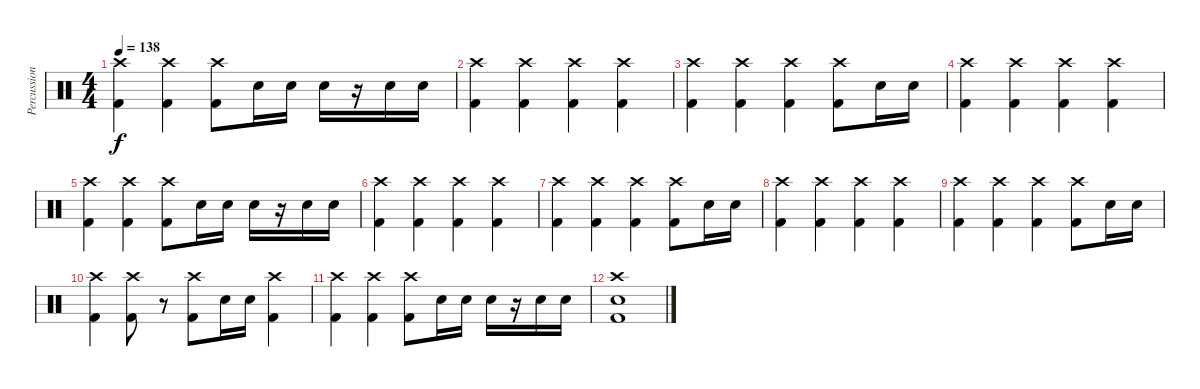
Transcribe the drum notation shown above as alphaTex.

\track ("Percussion" "Percussion") {instrument percussion}
\staff {score}
\articulation defaults
\ts (4 4)
\tempo 138
\clef neutral
\ks c
("Crash high (hit)" "Kick (hit) 2").4{dy f} ("Crash high (hit)" "Kick (hit) 2").4 ("Crash high (hit)" "Kick (hit) 2").8 "Electric Snare (hit)".16 "Electric Snare (hit)".16 "Electric Snare (hit)".16 r.16 "Electric Snare (hit)".16 "Electric Snare (hit)".16 |
("Crash high (hit)" "Kick (hit) 2").4 ("Crash high (hit)" "Kick (hit) 2").4 ("Crash high (hit)" "Kick (hit) 2").4 ("Crash high (hit)" "Kick (hit) 2").4 |
("Crash high (hit)" "Kick (hit) 2").4 ("Crash high (hit)" "Kick (hit) 2").4 ("Crash high (hit)" "Kick (hit) 2").4 ("Crash high (hit)" "Kick (hit) 2").8 "Electric Snare (hit)".16 "Electric Snare (hit)".16 |
("Crash high (hit)" "Kick (hit) 2").4 ("Crash high (hit)" "Kick (hit) 2").4 ("Crash high (hit)" "Kick (hit) 2").4 ("Crash high (hit)" "Kick (hit) 2").4 |
("Crash high (hit)" "Kick (hit) 2").4 ("Crash high (hit)" "Kick (hit) 2").4 ("Crash high (hit)" "Kick (hit) 2").8 "Electric Snare (hit)".16 "Electric Snare (hit)".16 "Electric Snare (hit)".16 r.16 "Electric Snare (hit)".16 "Electric Snare (hit)".16 |
("Crash high (hit)" "Kick (hit) 2").4 ("Crash high (hit)" "Kick (hit) 2").4 ("Crash high (hit)" "Kick (hit) 2").4 ("Crash high (hit)" "Kick (hit) 2").4 |
("Crash high (hit)" "Kick (hit) 2").4 ("Crash high (hit)" "Kick (hit) 2").4 ("Crash high (hit)" "Kick (hit) 2").4 ("Crash high (hit)" "Kick (hit) 2").8 "Electric Snare (hit)".16 "Electric Snare (hit)".16 |
("Crash high (hit)" "Kick (hit) 2").4 ("Crash high (hit)" "Kick (hit) 2").4 ("Crash high (hit)" "Kick (hit) 2").4 ("Crash high (hit)" "Kick (hit) 2").4 |
("Crash high (hit)" "Kick (hit) 2").4 ("Crash high (hit)" "Kick (hit) 2").4 ("Crash high (hit)" "Kick (hit) 2").4 ("Crash high (hit)" "Kick (hit) 2").8 "Electric Snare (hit)".16 "Electric Snare (hit)".16 |
("Crash high (hit)" "Kick (hit) 2").4 ("Crash high (hit)" "Kick (hit) 2").8 r.8 ("Crash high (hit)" "Kick (hit) 2").8 "Electric Snare (hit)".16 "Electric Snare (hit)".16 ("Crash high (hit)" "Kick (hit) 2").4 |
("Crash high (hit)" "Kick (hit) 2").4 ("Crash high (hit)" "Kick (hit) 2").4 ("Crash high (hit)" "Kick (hit) 2").8 "Electric Snare (hit)".16 "Electric Snare (hit)".16 "Electric Snare (hit)".16 r.16 "Electric Snare (hit)".16 "Electric Snare (hit)".16 |
("Crash high (hit)" "Electric Snare (hit)" "Kick (hit) 2").1
